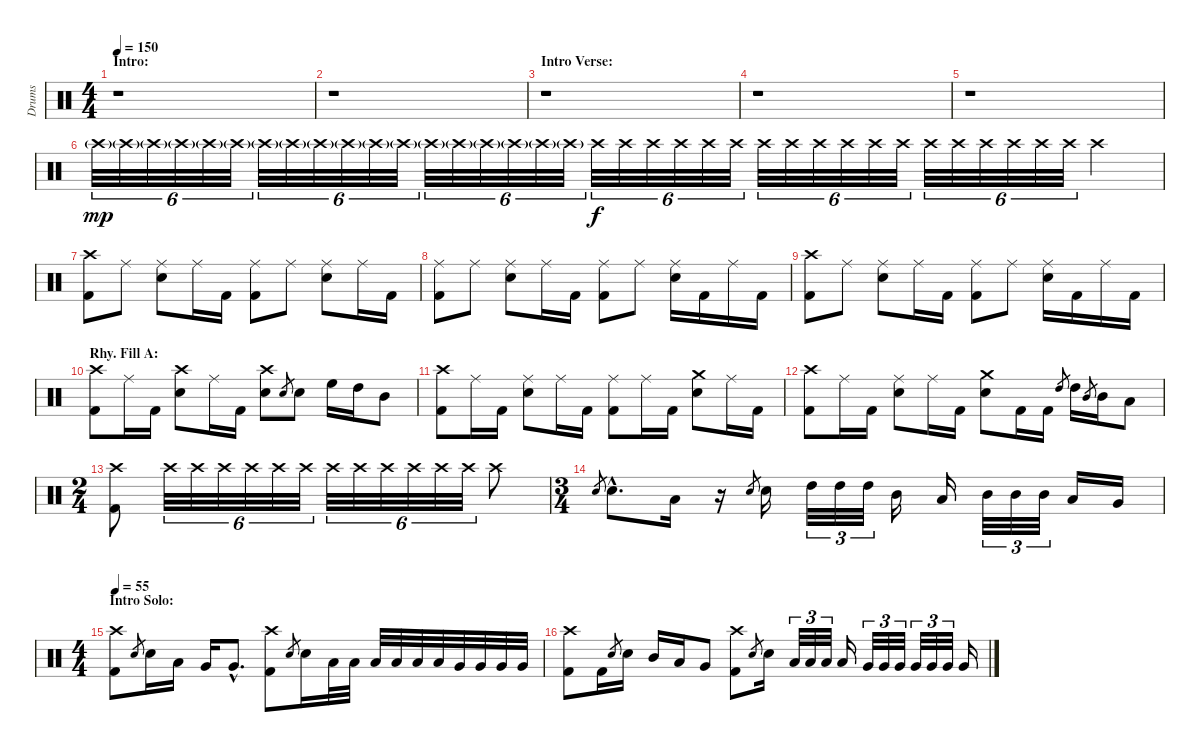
\track ("Drums" "Drums") {instrument percussion}
\staff {score}
\articulation defaults
\ts (4 4)
\section ("" "Intro:")
\tempo 150
\tempo 50
\tempo 150
\clef neutral
\ks c
r.1{dy mp} |
r.1 |
\section ("" "Intro Verse:")
r.1 |
r.1 |
r.1 |
"Crash high (hit)"{g}.32{tu (6 4)} "Crash high (hit)"{g}.32{tu (6 4)} "Crash high (hit)"{g}.32{tu (6 4)} "Crash high (hit)"{g}.32{tu (6 4)} "Crash high (hit)"{g}.32{tu (6 4)} "Crash high (hit)"{g}.32{tu (6 4)} "Crash high (hit)"{g}.32{tu (6 4)} "Crash high (hit)"{g}.32{tu (6 4)} "Crash high (hit)"{g}.32{tu (6 4)} "Crash high (hit)"{g}.32{tu (6 4)} "Crash high (hit)"{g}.32{tu (6 4)} "Crash high (hit)"{g}.32{tu (6 4)} "Crash high (hit)"{g}.32{tu (6 4)} "Crash high (hit)"{g}.32{tu (6 4)} "Crash high (hit)"{g}.32{tu (6 4)} "Crash high (hit)"{g}.32{tu (6 4)} "Crash high (hit)"{g}.32{tu (6 4)} "Crash high (hit)"{g}.32{tu (6 4)} "Crash high (hit)".32{tu (6 4) dy f} "Crash high (hit)".32{tu (6 4)} "Crash high (hit)".32{tu (6 4)} "Crash high (hit)".32{tu (6 4)} "Crash high (hit)".32{tu (6 4)} "Crash high (hit)".32{tu (6 4)} "Crash high (hit)".32{tu (6 4)} "Crash high (hit)".32{tu (6 4)} "Crash high (hit)".32{tu (6 4)} "Crash high (hit)".32{tu (6 4)} "Crash high (hit)".32{tu (6 4)} "Crash high (hit)".32{tu (6 4)} "Crash high (hit)".32{tu (6 4)} "Crash high (hit)".32{tu (6 4)} "Crash high (hit)".32{tu (6 4)} "Crash high (hit)".32{tu (6 4)} "Crash high (hit)".32{tu (6 4)} "Crash high (hit)".32{tu (6 4)} "Crash high (hit)".4 |
("Crash high (hit)" "Kick (hit) 2").8 "Ride (middle)".8 ("Ride (middle)" "Snare (hit) 2").8 "Ride (middle)".16 "Kick (hit) 2".16 ("Ride (middle)" "Kick (hit) 2").8 "Ride (middle)".8 ("Ride (middle)" "Snare (hit) 2").8 "Ride (middle)".16 "Kick (hit) 2".16 |
("Ride (middle)" "Kick (hit) 2").8 "Ride (middle)".8 ("Ride (middle)" "Snare (hit) 2").8 "Ride (middle)".16 "Kick (hit) 2".16 ("Ride (middle)" "Kick (hit) 2").8 "Ride (middle)".8 ("Ride (middle)" "Snare (hit) 2").16 "Kick (hit) 2".16 "Ride (middle)".16 "Kick (hit) 2".16 |
("Crash high (hit)" "Kick (hit) 2").8 "Ride (middle)".8 ("Ride (middle)" "Snare (hit) 2").8 "Ride (middle)".16 "Kick (hit) 2".16 ("Ride (middle)" "Kick (hit) 2").8 "Ride (middle)".8 ("Ride (middle)" "Snare (hit) 2").16 "Kick (hit) 2".16 "Ride (middle)".16 "Kick (hit) 2".16 |
\section ("" "Rhy. Fill A:")
("Crash high (hit)" "Kick (hit) 2").8 "Ride (middle)".16 "Kick (hit) 2".16 ("Crash high (hit)" "Snare (hit) 2").8 "Ride (middle)".16 "Kick (hit) 2".16 ("Crash high (hit)" "Snare (hit) 2").8 "Snare (hit) 2".8{gr} "Snare (hit) 2".8 "High Floor Tom (hit)".16 "High Tom (hit)".16 "Mid Tom (hit)".8 |
("Crash high (hit)" "Kick (hit) 2").8 "Ride (middle)".16 "Kick (hit) 2".16 ("Ride (middle)" "Snare (hit) 2").8 "Ride (middle)".16 "Kick (hit) 2".16 ("Ride (middle)" "Kick (hit) 2").8 "Ride (middle)".16 "Kick (hit) 2".16 ("Crash medium (hit)" "Snare (hit) 2").8 "Ride (middle)".16 "Kick (hit) 2".16 |
("Crash high (hit)" "Kick (hit) 2").8 "Ride (middle)".16 "Kick (hit) 2".16 ("Ride (middle)" "Snare (hit) 2").8 "Ride (middle)".16 "Kick (hit) 2".16 ("Crash medium (hit)" "Snare (hit) 2").8 "Kick (hit) 2".16 "Kick (hit) 2".16 "High Tom (hit)".8{gr} "High Tom (hit)".16 "Mid Tom (hit)".8{gr} "Mid Tom (hit)".16 "Low Tom (hit)".8 |
\ts (2 4)
("Crash high (hit)" "Kick (hit) 2").8 "Crash high (hit)".32{tu (6 4)} "Crash high (hit)".32{tu (6 4)} "Crash high (hit)".32{tu (6 4)} "Crash high (hit)".32{tu (6 4)} "Crash high (hit)".32{tu (6 4)} "Crash high (hit)".32{tu (6 4)} "Crash high (hit)".32{tu (6 4)} "Crash high (hit)".32{tu (6 4)} "Crash high (hit)".32{tu (6 4)} "Crash high (hit)".32{tu (6 4)} "Crash high (hit)".32{tu (6 4)} "Crash high (hit)".32{tu (6 4)} "Crash high (hit)".8 |
\ts (3 4)
"Snare (hit) 2".8{gr} "Snare (hit) 2"{hac}.8{d} "Low Tom (hit)".16 r.16 "Snare (hit) 2".8{gr} "Snare (hit) 2".16 "High Tom (hit)".32{tu (3 2)} "High Tom (hit)".32{tu (3 2)} "High Tom (hit)".32{tu (3 2)} "Mid Tom (hit)".16 "Low Tom (hit)".16 "Mid Tom (hit)".32{tu (3 2)} "Mid Tom (hit)".32{tu (3 2)} "Mid Tom (hit)".32{tu (3 2)} "Low Tom (hit)".16 "Very Low Tom (hit)".16 |
\ts (4 4)
\section ("" "Intro Solo:")
\tempo 55
("Crash high (hit)" "Kick (hit) 2").8 "Snare (hit) 2".8{gr} "Snare (hit) 2".16 "Low Tom (hit)".16 "Very Low Tom (hit)".16 "Very Low Tom (hit)"{hac}.8{d} ("Crash high (hit)" "Kick (hit) 2").8 "Snare (hit) 2".8{gr} "Snare (hit) 2".16 "Low Tom (hit)".32 "Low Tom (hit)".32 "Low Tom (hit)".32 "Low Tom (hit)".32 "Low Tom (hit)".32 "Low Tom (hit)".32 "Very Low Tom (hit)".32 "Very Low Tom (hit)".32 "Very Low Tom (hit)".32 "Very Low Tom (hit)".32 |
("Crash high (hit)" "Kick (hit) 2").8 "Kick (hit) 2".16 "Snare (hit) 2".8{gr} "Snare (hit) 2".16 "Mid Tom (hit)".16 "Low Tom (hit)".16 "Very Low Tom (hit)".8 ("Crash high (hit)" "Kick (hit) 2").8 "Snare (hit) 2".8{gr} "Snare (hit) 2".16 "Low Tom (hit)".32{tu (3 2)} "Low Tom (hit)".32{tu (3 2)} "Low Tom (hit)".32{tu (3 2)} "Low Tom (hit)".16 "Very Low Tom (hit)".32{tu (3 2)} "Very Low Tom (hit)".32{tu (3 2)} "Very Low Tom (hit)".32{tu (3 2)} "Very Low Tom (hit)".32{tu (3 2)} "Very Low Tom (hit)".32{tu (3 2)} "Very Low Tom (hit)".32{tu (3 2)} "Very Low Tom (hit)".16
